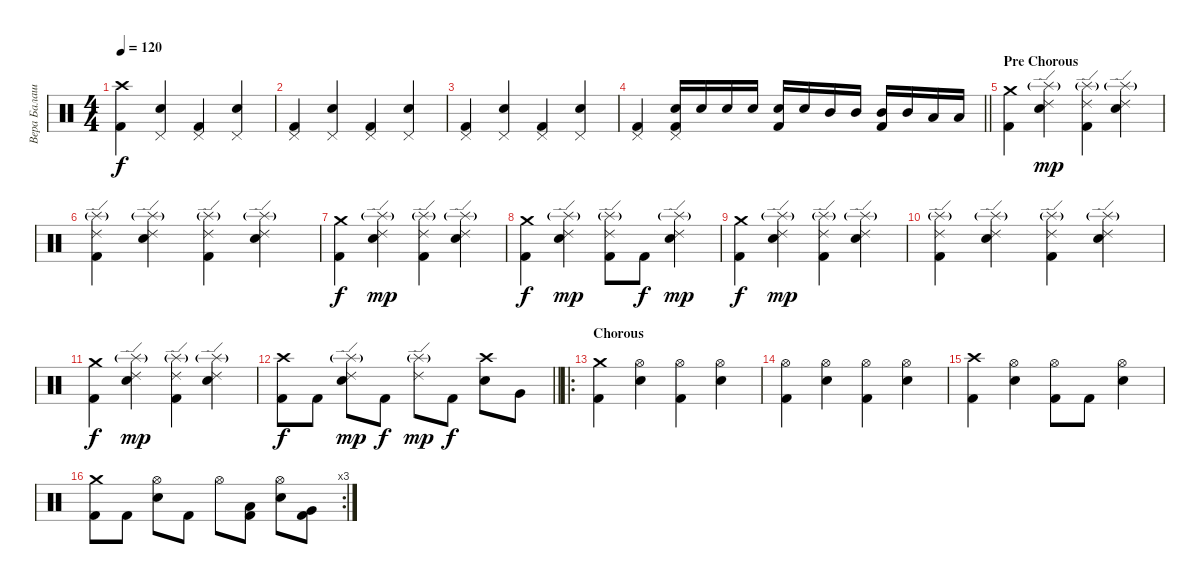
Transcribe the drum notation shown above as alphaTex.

\track ("Вера Балашевич" "Вера Балаш") {instrument percussion}
\staff {score}
\articulation defaults
\ts (4 4)
\tempo 120
\clef neutral
\ks c
("Crash high (hit)" "Kick (hit) 2").4{dy f} ("Pedal Hi-Hat (hit)" "Electric Snare (hit)").4 ("Pedal Hi-Hat (hit)" "Kick (hit) 2").4 ("Pedal Hi-Hat (hit)" "Electric Snare (hit)").4 |
("Pedal Hi-Hat (hit)" "Kick (hit) 2").4 ("Pedal Hi-Hat (hit)" "Electric Snare (hit)").4 ("Pedal Hi-Hat (hit)" "Kick (hit) 2").4 ("Pedal Hi-Hat (hit)" "Electric Snare (hit)").4 |
("Pedal Hi-Hat (hit)" "Kick (hit) 2").4 ("Pedal Hi-Hat (hit)" "Electric Snare (hit)").4 ("Pedal Hi-Hat (hit)" "Kick (hit) 2").4 ("Pedal Hi-Hat (hit)" "Electric Snare (hit)").4 |
\barLineRight lightlight
("Pedal Hi-Hat (hit)" "Kick (hit) 2").4 ("Pedal Hi-Hat (hit)" "Electric Snare (hit)" "Kick (hit) 2").16 "Electric Snare (hit)".16 "Electric Snare (hit)".16 "Electric Snare (hit)".16 ("Electric Snare (hit)" "Kick (hit) 2").16 "Electric Snare (hit)".16 "Mid Tom (hit)".16 "Mid Tom (hit)".16 ("Mid Tom (hit)" "Kick (hit) 2").16 "Mid Tom (hit)".16 "Low Tom (hit)".16 "Low Tom (hit)".16 |
\section ("" "Pre Chorous")
("Crash medium (hit)" "Kick (hit) 2").4 ("Ride (edge) 2" "Splash (hit)"{g} "Electric Snare (hit)").4{dy mp} ("Ride (edge) 2" "Splash (hit)"{g} "Kick (hit) 2").4 ("Ride (edge) 2" "Splash (hit)"{g} "Electric Snare (hit)").4 |
("Ride (edge) 2" "Splash (hit)"{g} "Kick (hit) 2").4 ("Ride (edge) 2" "Splash (hit)"{g} "Electric Snare (hit)").4 ("Ride (edge) 2" "Splash (hit)"{g} "Kick (hit) 2").4 ("Ride (edge) 2" "Splash (hit)"{g} "Electric Snare (hit)").4 |
("Crash medium (hit)" "Kick (hit) 2").4{dy f} ("Ride (edge) 2" "Splash (hit)"{g} "Electric Snare (hit)").4{dy mp} ("Ride (edge) 2" "Splash (hit)"{g} "Kick (hit) 2").4 ("Ride (edge) 2" "Splash (hit)"{g} "Electric Snare (hit)").4 |
("Crash medium (hit)" "Kick (hit) 2").4{dy f} ("Ride (edge) 2" "Splash (hit)"{g} "Electric Snare (hit)").4{dy mp} ("Ride (edge) 2" "Splash (hit)"{g} "Kick (hit) 2").8 "Kick (hit) 2".8{dy f} ("Ride (edge) 2" "Splash (hit)"{g} "Electric Snare (hit)").4{dy mp} |
("Crash medium (hit)" "Kick (hit) 2").4{dy f} ("Ride (edge) 2" "Splash (hit)"{g} "Electric Snare (hit)").4{dy mp} ("Ride (edge) 2" "Splash (hit)"{g} "Kick (hit) 2").4 ("Ride (edge) 2" "Splash (hit)"{g} "Electric Snare (hit)").4 |
("Ride (edge) 2" "Splash (hit)"{g} "Kick (hit) 2").4 ("Ride (edge) 2" "Splash (hit)"{g} "Electric Snare (hit)").4 ("Ride (edge) 2" "Splash (hit)"{g} "Kick (hit) 2").4 ("Ride (edge) 2" "Splash (hit)"{g} "Electric Snare (hit)").4 |
("Crash medium (hit)" "Kick (hit) 2").4{dy f} ("Ride (edge) 2" "Splash (hit)"{g} "Electric Snare (hit)").4{dy mp} ("Ride (edge) 2" "Splash (hit)"{g} "Kick (hit) 2").4 ("Ride (edge) 2" "Splash (hit)"{g} "Electric Snare (hit)").4 |
\barLineRight lightlight
("Crash high (hit)" "Kick (hit) 2").8{dy f} "Kick (hit) 2".8 ("Ride (edge) 2" "Splash (hit)"{g} "Electric Snare (hit)").8{dy mp} "Kick (hit) 2".8{dy f} ("Ride (edge) 2" "Splash (hit)"{g}).8{dy mp} "Kick (hit) 2".8{dy f} ("Crash high (hit)" "Electric Snare (hit)").8 "Very Low Tom (hit)".8 |
\ro
\section ("" "Chorous")
("Crash medium (hit)" "Kick (hit) 2").4 ("Hi-Hat (open)" "Electric Snare (hit)").4 ("Hi-Hat (open)" "Kick (hit) 2").4 ("Hi-Hat (open)" "Electric Snare (hit)").4 |
("Hi-Hat (open)" "Kick (hit) 2").4 ("Hi-Hat (open)" "Electric Snare (hit)").4 ("Hi-Hat (open)" "Kick (hit) 2").4 ("Hi-Hat (open)" "Electric Snare (hit)").4 |
("Crash high (hit)" "Kick (hit) 2").4 ("Hi-Hat (open)" "Electric Snare (hit)").4 ("Hi-Hat (open)" "Kick (hit) 2").8 "Kick (hit) 2".8 ("Hi-Hat (open)" "Electric Snare (hit)").4 |
\rc 3
("Crash medium (hit)" "Kick (hit) 2").8 "Kick (hit) 2".8 ("Hi-Hat (open)" "Electric Snare (hit)").8 "Kick (hit) 2".8 "Hi-Hat (open)".8 ("Low Tom (hit)" "Kick (hit) 2").8 ("Hi-Hat (open)" "Electric Snare (hit)").8 ("Very Low Tom (hit)" "Kick (hit) 2").8
